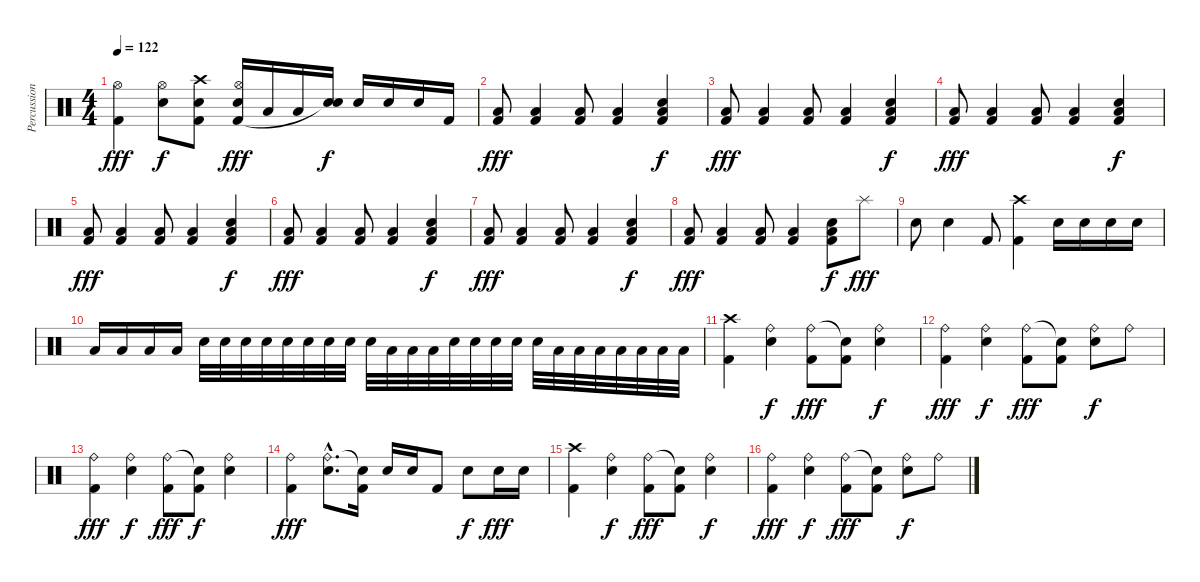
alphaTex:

\track ("Percussions" "Percussion") {instrument percussion}
\staff {score}
\articulation defaults
\ts (4 4)
\tempo 122
\clef neutral
\ks c
("Kick (hit) 2" "Hi-Hat (open)").4{dy fff} ("Snare (hit) 2" "Hi-Hat (open)").8{dy f} ("Crash high (hit)" "Kick (hit) 2" "Snare (hit)").8 ("Snare (hit) 2" "Kick (hit) 2" "Hi-Hat (open)").16{dy fff} "Low Floor Tom (hit)".16 "Low Floor Tom (hit)".16 ("Snare (hit) 2" "Snare (hit)"{t}).16{dy f} "Snare (hit) 2".16 "Snare (hit) 2".16 "Snare (hit) 2".16 "Kick (hit) 2".16 |
("Low Tom (hit)" "Kick (hit) 2").8{dy fff} ("Low Tom (hit)" "Kick (hit) 2").4 ("Low Tom (hit)" "Kick (hit) 2").8 ("Low Tom (hit)" "Kick (hit) 2").4 ("Snare (hit) 2" "Low Tom (hit)" "Kick (hit) 2").4{dy f} |
("Low Tom (hit)" "Kick (hit) 2").8{dy fff} ("Low Tom (hit)" "Kick (hit) 2").4 ("Low Tom (hit)" "Kick (hit) 2").8 ("Low Tom (hit)" "Kick (hit) 2").4 ("Snare (hit) 2" "Low Tom (hit)" "Kick (hit) 2").4{dy f} |
("Low Tom (hit)" "Kick (hit) 2").8{dy fff} ("Low Tom (hit)" "Kick (hit) 2").4 ("Low Tom (hit)" "Kick (hit) 2").8 ("Low Tom (hit)" "Kick (hit) 2").4 ("Snare (hit) 2" "Low Tom (hit)" "Kick (hit) 2").4{dy f} |
("Low Tom (hit)" "Kick (hit) 2").8{dy fff} ("Low Tom (hit)" "Kick (hit) 2").4 ("Low Tom (hit)" "Kick (hit) 2").8 ("Low Tom (hit)" "Kick (hit) 2").4 ("Snare (hit) 2" "Low Tom (hit)" "Kick (hit) 2").4{dy f} |
("Low Tom (hit)" "Kick (hit) 2").8{dy fff} ("Low Tom (hit)" "Kick (hit) 2").4 ("Low Tom (hit)" "Kick (hit) 2").8 ("Low Tom (hit)" "Kick (hit) 2").4 ("Snare (hit) 2" "Low Tom (hit)" "Kick (hit) 2").4{dy f} |
("Low Tom (hit)" "Kick (hit) 2").8{dy fff} ("Low Tom (hit)" "Kick (hit) 2").4 ("Low Tom (hit)" "Kick (hit) 2").8 ("Low Tom (hit)" "Kick (hit) 2").4 ("Snare (hit) 2" "Low Tom (hit)" "Kick (hit) 2").4{dy f} |
("Low Tom (hit)" "Kick (hit) 2").8{dy fff} ("Low Tom (hit)" "Kick (hit) 2").4 ("Low Tom (hit)" "Kick (hit) 2").8 ("Low Tom (hit)" "Kick (hit) 2").4 ("Snare (hit) 2" "Low Tom (hit)" "Kick (hit) 2").8{dy f} "Splash (hit)".8{dy fff} |
"Snare (hit) 2".8 "Snare (hit) 2".4 "Kick (hit) 2".8 ("Crash high (hit)" "Kick (hit) 2").4 "Snare (hit) 2".16 "Snare (hit) 2".16 "Snare (hit) 2".16 "Snare (hit) 2".16 |
"Low Tom (hit)".16 "Low Tom (hit)".16 "Low Tom (hit)".16 "Low Tom (hit)".16 "Snare (hit) 2".32 "Snare (hit) 2".32 "Snare (hit) 2".32 "Snare (hit) 2".32 "Snare (hit) 2".32 "Snare (hit) 2".32 "Snare (hit) 2".32 "Snare (hit) 2".32 "Snare (hit) 2".32 "Low Tom (hit)".32 "Low Tom (hit)".32 "Low Tom (hit)".32 "Snare (hit) 2".32 "Snare (hit) 2".32 "Snare (hit) 2".32 "Snare (hit) 2".32 "Snare (hit) 2".32 "Low Floor Tom (hit)".32 "Low Floor Tom (hit)".32 "Low Floor Tom (hit)".32 "Low Floor Tom (hit)".32 "Low Floor Tom (hit)".32 "Low Floor Tom (hit)".32 "Low Floor Tom (hit)".32 |
("Crash high (hit)" "Kick (hit) 2").4 ("Snare (hit) 2" "Ride (bell)").4{dy f} ("Kick (hit) 2" "Ride (bell)").8{dy fff} ("Kick (hit) 2" "Snare (hit)"{t}).8 ("Snare (hit) 2" "Ride (bell)").4{dy f} |
("Kick (hit) 2" "Ride (bell)").4{dy fff} ("Snare (hit) 2" "Ride (bell)").4{dy f} ("Kick (hit) 2" "Ride (bell)").8{dy fff} ("Kick (hit) 2" "Snare (hit)"{t}).8 ("Snare (hit) 2" "Ride (bell)").8{dy f} "Ride (bell)".8 |
("Kick (hit) 2" "Ride (bell)").4{dy fff} ("Snare (hit) 2" "Ride (bell)").4{dy f} ("Kick (hit) 2" "Ride (bell)").8{dy fff} ("Kick (hit) 2" "Snare (hit)"{t}).8{dy f} ("Snare (hit) 2" "Ride (bell)").4 |
("Kick (hit) 2" "Ride (bell)").4{dy fff} ("Snare (hit) 2"{hac} "Ride (bell)"{hac}).8{d} ("Kick (hit) 2" "Snare (hit)"{t}).16 "Snare (hit) 2".16 "Snare (hit) 2".16 "Kick (hit) 2".8 "Snare (hit) 2".8{dy f} "Snare (hit) 2".16{dy fff} "Snare (hit) 2".16 |
("Crash high (hit)" "Kick (hit) 2").4 ("Snare (hit) 2" "Ride (bell)").4{dy f} ("Kick (hit) 2" "Ride (bell)").8{dy fff} ("Kick (hit) 2" "Snare (hit)"{t}).8 ("Snare (hit) 2" "Ride (bell)").4{dy f} |
("Kick (hit) 2" "Ride (bell)").4{dy fff} ("Snare (hit) 2" "Ride (bell)").4{dy f} ("Kick (hit) 2" "Ride (bell)").8{dy fff} ("Kick (hit) 2" "Snare (hit)"{t}).8 ("Snare (hit) 2" "Ride (bell)").8{dy f} "Ride (bell)".8
